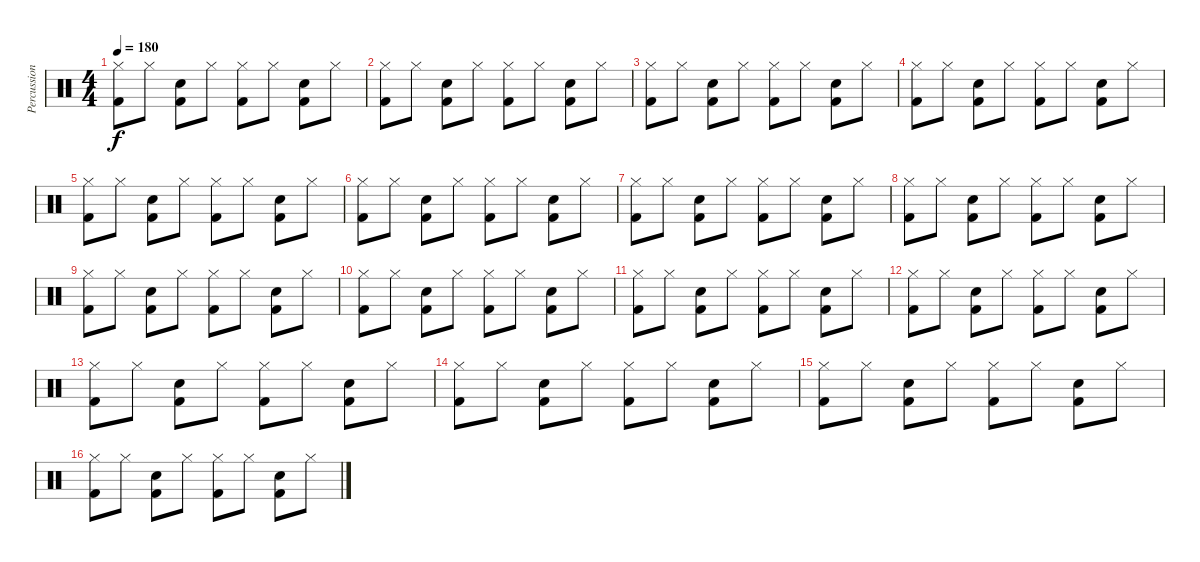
\track ("Percussion" "Percussion") {instrument percussion}
\staff {score}
\articulation defaults
\ts (4 4)
\tempo 180
\clef neutral
\ks c
("Kick (hit) 2" "Hi-Hat (closed)").8{dy f} "Hi-Hat (closed)".8 ("Kick (hit) 2" "Snare (hit) 2").8 "Hi-Hat (closed)".8 ("Kick (hit) 2" "Hi-Hat (closed)").8 "Hi-Hat (closed)".8 ("Kick (hit) 2" "Electric Snare (hit)").8 "Hi-Hat (closed)".8 |
("Kick (hit) 2" "Hi-Hat (closed)").8 "Hi-Hat (closed)".8 ("Kick (hit) 2" "Snare (hit) 2").8 "Hi-Hat (closed)".8 ("Kick (hit) 2" "Hi-Hat (closed)").8 "Hi-Hat (closed)".8 ("Kick (hit) 2" "Electric Snare (hit)").8 "Hi-Hat (closed)".8 |
("Kick (hit) 2" "Hi-Hat (closed)").8 "Hi-Hat (closed)".8 ("Kick (hit) 2" "Snare (hit) 2").8 "Hi-Hat (closed)".8 ("Kick (hit) 2" "Hi-Hat (closed)").8 "Hi-Hat (closed)".8 ("Kick (hit) 2" "Electric Snare (hit)").8 "Hi-Hat (closed)".8 |
("Kick (hit) 2" "Hi-Hat (closed)").8 "Hi-Hat (closed)".8 ("Kick (hit) 2" "Snare (hit) 2").8 "Hi-Hat (closed)".8 ("Kick (hit) 2" "Hi-Hat (closed)").8 "Hi-Hat (closed)".8 ("Kick (hit) 2" "Electric Snare (hit)").8 "Hi-Hat (closed)".8 |
("Kick (hit) 2" "Hi-Hat (closed)").8 "Hi-Hat (closed)".8 ("Kick (hit) 2" "Snare (hit) 2").8 "Hi-Hat (closed)".8 ("Kick (hit) 2" "Hi-Hat (closed)").8 "Hi-Hat (closed)".8 ("Kick (hit) 2" "Electric Snare (hit)").8 "Hi-Hat (closed)".8 |
("Kick (hit) 2" "Hi-Hat (closed)").8 "Hi-Hat (closed)".8 ("Kick (hit) 2" "Snare (hit) 2").8 "Hi-Hat (closed)".8 ("Kick (hit) 2" "Hi-Hat (closed)").8 "Hi-Hat (closed)".8 ("Kick (hit) 2" "Electric Snare (hit)").8 "Hi-Hat (closed)".8 |
("Kick (hit) 2" "Hi-Hat (closed)").8 "Hi-Hat (closed)".8 ("Kick (hit) 2" "Snare (hit) 2").8 "Hi-Hat (closed)".8 ("Kick (hit) 2" "Hi-Hat (closed)").8 "Hi-Hat (closed)".8 ("Kick (hit) 2" "Electric Snare (hit)").8 "Hi-Hat (closed)".8 |
("Kick (hit) 2" "Hi-Hat (closed)").8 "Hi-Hat (closed)".8 ("Kick (hit) 2" "Snare (hit) 2").8 "Hi-Hat (closed)".8 ("Kick (hit) 2" "Hi-Hat (closed)").8 "Hi-Hat (closed)".8 ("Kick (hit) 2" "Electric Snare (hit)").8 "Hi-Hat (closed)".8 |
("Kick (hit) 2" "Hi-Hat (closed)").8 "Hi-Hat (closed)".8 ("Kick (hit) 2" "Snare (hit) 2").8 "Hi-Hat (closed)".8 ("Kick (hit) 2" "Hi-Hat (closed)").8 "Hi-Hat (closed)".8 ("Kick (hit) 2" "Electric Snare (hit)").8 "Hi-Hat (closed)".8 |
("Kick (hit) 2" "Hi-Hat (closed)").8 "Hi-Hat (closed)".8 ("Kick (hit) 2" "Snare (hit) 2").8 "Hi-Hat (closed)".8 ("Kick (hit) 2" "Hi-Hat (closed)").8 "Hi-Hat (closed)".8 ("Kick (hit) 2" "Electric Snare (hit)").8 "Hi-Hat (closed)".8 |
("Kick (hit) 2" "Hi-Hat (closed)").8 "Hi-Hat (closed)".8 ("Kick (hit) 2" "Snare (hit) 2").8 "Hi-Hat (closed)".8 ("Kick (hit) 2" "Hi-Hat (closed)").8 "Hi-Hat (closed)".8 ("Kick (hit) 2" "Electric Snare (hit)").8 "Hi-Hat (closed)".8 |
("Kick (hit) 2" "Hi-Hat (closed)").8 "Hi-Hat (closed)".8 ("Kick (hit) 2" "Snare (hit) 2").8 "Hi-Hat (closed)".8 ("Kick (hit) 2" "Hi-Hat (closed)").8 "Hi-Hat (closed)".8 ("Kick (hit) 2" "Electric Snare (hit)").8 "Hi-Hat (closed)".8 |
("Kick (hit) 2" "Hi-Hat (closed)").8 "Hi-Hat (closed)".8 ("Kick (hit) 2" "Snare (hit) 2").8 "Hi-Hat (closed)".8 ("Kick (hit) 2" "Hi-Hat (closed)").8 "Hi-Hat (closed)".8 ("Kick (hit) 2" "Electric Snare (hit)").8 "Hi-Hat (closed)".8 |
("Kick (hit) 2" "Hi-Hat (closed)").8 "Hi-Hat (closed)".8 ("Kick (hit) 2" "Snare (hit) 2").8 "Hi-Hat (closed)".8 ("Kick (hit) 2" "Hi-Hat (closed)").8 "Hi-Hat (closed)".8 ("Kick (hit) 2" "Electric Snare (hit)").8 "Hi-Hat (closed)".8 |
("Kick (hit) 2" "Hi-Hat (closed)").8 "Hi-Hat (closed)".8 ("Kick (hit) 2" "Snare (hit) 2").8 "Hi-Hat (closed)".8 ("Kick (hit) 2" "Hi-Hat (closed)").8 "Hi-Hat (closed)".8 ("Kick (hit) 2" "Electric Snare (hit)").8 "Hi-Hat (closed)".8 |
("Kick (hit) 2" "Hi-Hat (closed)").8 "Hi-Hat (closed)".8 ("Kick (hit) 2" "Snare (hit) 2").8 "Hi-Hat (closed)".8 ("Kick (hit) 2" "Hi-Hat (closed)").8 "Hi-Hat (closed)".8 ("Kick (hit) 2" "Electric Snare (hit)").8 "Hi-Hat (closed)".8
